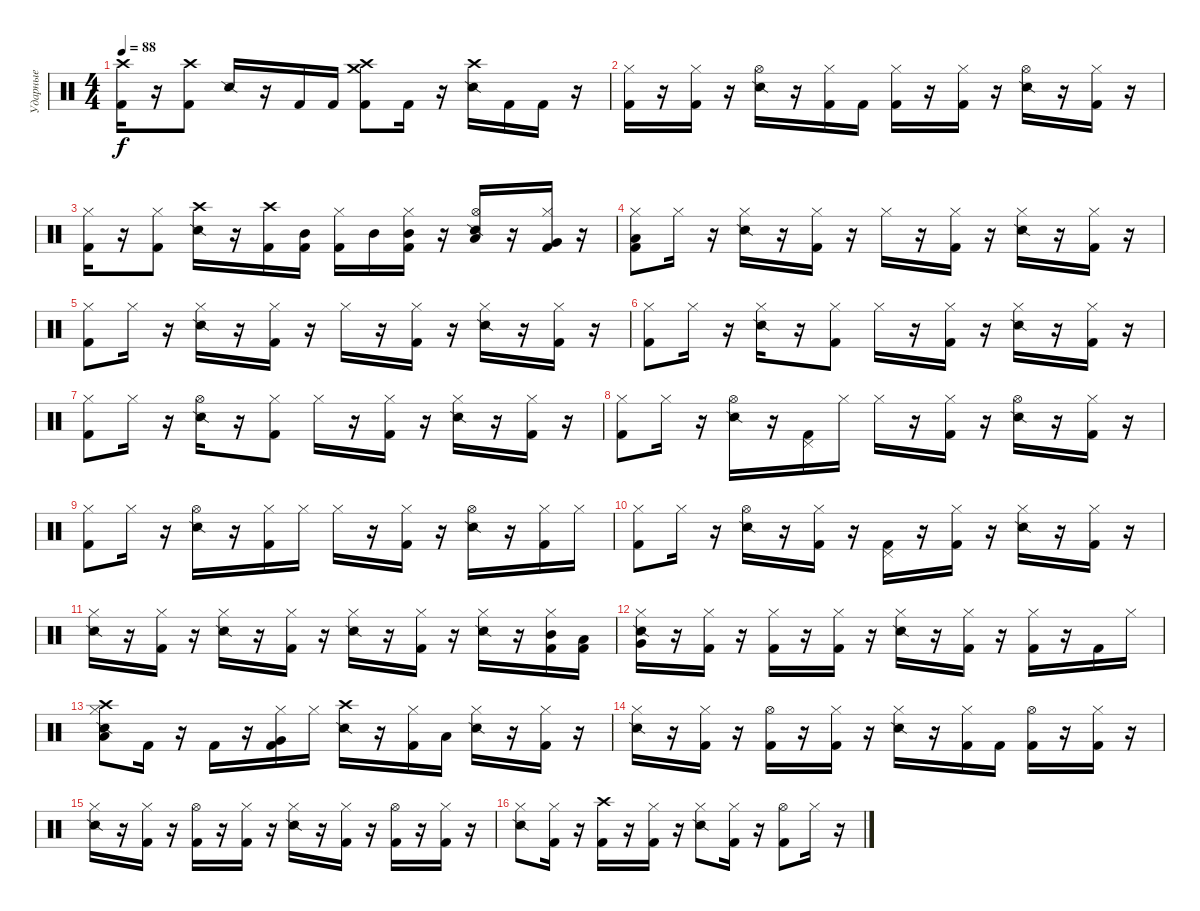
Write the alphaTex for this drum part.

\track ("Ударные" "Ударные") {instrument percussion}
\staff {score}
\articulation defaults
\ts (4 4)
\tempo 88
\clef neutral
\ks c
("Crash high (hit)" "Kick (hit) 2").16{dy f} r.16 ("Kick (hit) 2" "Crash high (hit)").8 "Snare (side stick) 2".16 r.16 "Kick (hit) 2".16 "Kick (hit) 2".16 ("Crash high (hit)" "Kick (hit) 2" "Crash medium (hit)").8 "Kick (hit) 2".16 r.16 ("Crash high (hit)" "Snare (side stick) 2").16 "Kick (hit) 2".16 "Kick (hit) 2".16 r.16 |
("Kick (hit) 2" "Hi-Hat (closed)").16 r.16 ("Kick (hit) 2" "Hi-Hat (closed)").16 r.16 ("Hi-Hat (open)" "Snare (side stick) 2").16 r.16 ("Hi-Hat (closed)" "Kick (hit) 2").16 "Kick (hit) 2".16 ("Kick (hit) 2" "Hi-Hat (closed)").16 r.16 ("Kick (hit) 2" "Hi-Hat (closed)").16 r.16 ("Hi-Hat (open)" "Snare (side stick) 2").16 r.16 ("Hi-Hat (closed)" "Kick (hit) 2").16 r.16 |
("Hi-Hat (closed)" "Kick (hit) 2").16 r.16 ("Kick (hit) 2" "Hi-Hat (closed)").8 ("Crash high (hit)" "Snare (side stick) 2").16 r.16 ("Kick (hit) 2" "Crash high (hit)").16 ("Mid Tom (hit)" "Kick (hit) 2").16 ("Kick (hit) 2" "Hi-Hat (closed)").16 "Mid Tom (hit)".16 ("Mid Tom (hit)" "Kick (hit) 2" "Hi-Hat (closed)").16 r.16 ("Low Tom (hit)" "Hi-Hat (open)" "Snare (side stick) 2").16 r.16 ("Very Low Tom (hit)" "Hi-Hat (closed)" "Kick (hit) 2").16 r.16 |
("Kick (hit) 2" "Low Floor Tom (hit)" "Hi-Hat (closed)").8 "Hi-Hat (closed)".16 r.16 ("Hi-Hat (closed)" "Snare (side stick) 2").16 r.16 ("Kick (hit) 2" "Hi-Hat (closed)").16 r.16 "Hi-Hat (closed)".16 r.16 ("Hi-Hat (closed)" "Kick (hit) 2").16 r.16 ("Hi-Hat (closed)" "Snare (side stick) 2").16 r.16 ("Hi-Hat (closed)" "Kick (hit) 2").16 r.16 |
("Hi-Hat (closed)" "Kick (hit) 2").8 "Hi-Hat (closed)".16 r.16 ("Hi-Hat (closed)" "Snare (side stick) 2").16 r.16 ("Hi-Hat (closed)" "Kick (hit) 2").16 r.16 "Hi-Hat (closed)".16 r.16 ("Hi-Hat (closed)" "Kick (hit) 2").16 r.16 ("Hi-Hat (closed)" "Snare (side stick) 2").16 r.16 ("Hi-Hat (closed)" "Kick (hit) 2").16 r.16 |
("Kick (hit) 2" "Hi-Hat (closed)").8 "Hi-Hat (closed)".16 r.16 ("Hi-Hat (closed)" "Snare (side stick) 2").16 r.16 ("Hi-Hat (closed)" "Kick (hit) 2").8 "Hi-Hat (closed)".16 r.16 ("Kick (hit) 2" "Hi-Hat (closed)").16 r.16 ("Hi-Hat (closed)" "Snare (side stick) 2").16 r.16 ("Kick (hit) 2" "Hi-Hat (closed)").16 r.16 |
("Kick (hit) 2" "Hi-Hat (closed)").8 "Hi-Hat (closed)".16 r.16 ("Hi-Hat (open)" "Snare (side stick) 2").16 r.16 ("Kick (hit) 2" "Hi-Hat (closed)").8 "Hi-Hat (closed)".16 r.16 ("Kick (hit) 2" "Hi-Hat (closed)").16 r.16 ("Hi-Hat (closed)" "Snare (side stick) 2").16 r.16 ("Kick (hit) 2" "Hi-Hat (closed)").16 r.16 |
("Kick (hit) 2" "Hi-Hat (closed)").8 "Hi-Hat (closed)".16 r.16 ("Hi-Hat (open)" "Snare (side stick) 2").16 r.16 ("Pedal Hi-Hat (hit)" "Kick (hit) 2").16 "Hi-Hat (closed)".16 "Hi-Hat (closed)".16 r.16 ("Hi-Hat (closed)" "Kick (hit) 2").16 r.16 ("Hi-Hat (open)" "Snare (side stick) 2").16 r.16 ("Hi-Hat (closed)" "Kick (hit) 2").16 r.16 |
("Kick (hit) 2" "Hi-Hat (closed)").8 "Hi-Hat (closed)".16 r.16 ("Hi-Hat (open)" "Snare (side stick) 2").16 r.16 ("Hi-Hat (closed)" "Kick (hit) 2").16 "Hi-Hat (closed)".16 "Hi-Hat (closed)".16 r.16 ("Hi-Hat (closed)" "Kick (hit) 2").16 r.16 ("Hi-Hat (open)" "Snare (side stick) 2").16 r.16 ("Hi-Hat (closed)" "Kick (hit) 2").16 "Hi-Hat (closed)".16 |
("Hi-Hat (closed)" "Kick (hit) 2").8 "Hi-Hat (closed)".16 r.16 ("Hi-Hat (open)" "Snare (side stick) 2").16 r.16 ("Hi-Hat (closed)" "Kick (hit) 2").16 r.16 ("Pedal Hi-Hat (hit)" "Kick (hit) 2").16 r.16 ("Hi-Hat (closed)" "Kick (hit) 2").16 r.16 ("Hi-Hat (closed)" "Snare (side stick) 2").16 r.16 ("Hi-Hat (closed)" "Kick (hit) 2").16 r.16 |
("Hi-Hat (closed)" "Snare (side stick) 2").16 r.16 ("Hi-Hat (closed)" "Kick (hit) 2").16 r.16 ("Hi-Hat (closed)" "Snare (side stick) 2").16 r.16 ("Hi-Hat (closed)" "Kick (hit) 2").16 r.16 ("Hi-Hat (closed)" "Snare (side stick) 2").16 r.16 ("Kick (hit) 2" "Hi-Hat (closed)").16 r.16 ("Hi-Hat (closed)" "Snare (side stick) 2").16 r.16 ("Kick (hit) 2" "Mid Tom (hit)" "Hi-Hat (closed)").16 ("Low Tom (hit)" "Kick (hit) 2").16 |
("Very Low Tom (hit)" "Hi-Hat (closed)" "Snare (side stick) 2").16 r.16 ("Kick (hit) 2" "Hi-Hat (closed)").16 r.16 ("Kick (hit) 2" "Hi-Hat (closed)").16 r.16 ("Hi-Hat (closed)" "Kick (hit) 2").16 r.16 ("Hi-Hat (closed)" "Snare (side stick) 2").16 r.16 ("Hi-Hat (closed)" "Kick (hit) 2").16 r.16 ("Hi-Hat (closed)" "Kick (hit) 2").16 r.16 "Kick (hit) 2".16 "Hi-Hat (closed)".16 |
("Crash high (hit)" "Hi-Hat (closed)" "Low Tom (hit)" "Snare (side stick) 2").8 "Kick (hit) 2".16 r.16 "Kick (hit) 2".16 r.16 ("Hi-Hat (closed)" "Kick (hit) 2" "Very Low Tom (hit)").16 "Hi-Hat (closed)".16 ("Crash high (hit)" "Snare (side stick) 2").16 r.16 ("Hi-Hat (closed)" "Kick (hit) 2").16 "Low Floor Tom (hit)".16 ("Hi-Hat (closed)" "Snare (side stick) 2").16 r.16 ("Hi-Hat (closed)" "Kick (hit) 2").16 r.16 |
("Hi-Hat (closed)" "Snare (side stick) 2").16 r.16 ("Hi-Hat (closed)" "Kick (hit) 2").16 r.16 ("Kick (hit) 2" "Hi-Hat (open)").16 r.16 ("Kick (hit) 2" "Hi-Hat (closed)").16 r.16 ("Hi-Hat (closed)" "Snare (side stick) 2").16 r.16 ("Kick (hit) 2" "Hi-Hat (closed)").16 "Kick (hit) 2".16 ("Hi-Hat (open)" "Kick (hit) 2").16 r.16 ("Kick (hit) 2" "Hi-Hat (closed)").16 r.16 |
("Hi-Hat (closed)" "Snare (side stick) 2").16 r.16 ("Kick (hit) 2" "Hi-Hat (closed)").16 r.16 ("Kick (hit) 2" "Hi-Hat (open)").16 r.16 ("Kick (hit) 2" "Hi-Hat (closed)").16 r.16 ("Hi-Hat (closed)" "Snare (side stick) 2").16 r.16 ("Kick (hit) 2" "Hi-Hat (closed)").16 r.16 ("Kick (hit) 2" "Hi-Hat (open)").16 r.16 ("Kick (hit) 2" "Hi-Hat (closed)").16 r.16 |
("Hi-Hat (closed)" "Snare (side stick) 2").8 ("Kick (hit) 2" "Hi-Hat (closed)").16 r.16 ("Crash high (hit)" "Kick (hit) 2").16 r.16 ("Hi-Hat (closed)" "Kick (hit) 2").16 r.16 ("Hi-Hat (closed)" "Snare (side stick) 2").8 ("Hi-Hat (closed)" "Kick (hit) 2").16 r.16 ("Hi-Hat (open)" "Kick (hit) 2").8 "Hi-Hat (closed)".16 r.16
